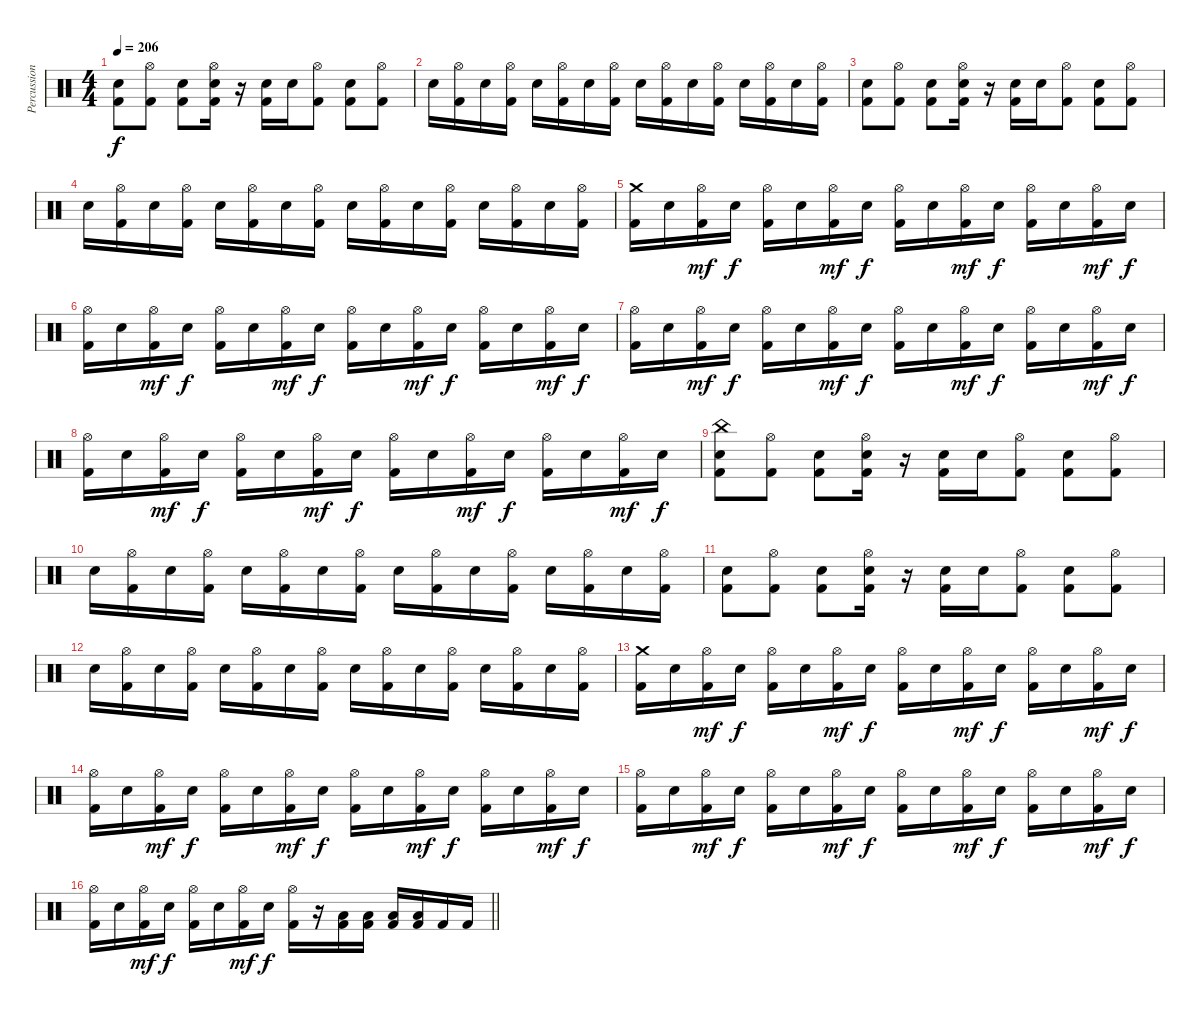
\track ("Percussion" "Percussion") {instrument percussion}
\staff {score}
\articulation defaults
\ts (4 4)
\tempo 206
\clef neutral
\ks c
("Electric Snare (hit)" "Kick (hit) 2").8{dy f} ("Hi-Hat (open)" "Kick (hit) 2").8 ("Electric Snare (hit)" "Kick (hit) 2").8 ("Hi-Hat (open)" "Electric Snare (hit)" "Kick (hit) 2").16 r.16 ("Electric Snare (hit)" "Kick (hit) 2").16 "Electric Snare (hit)".16 ("Hi-Hat (open)" "Kick (hit) 2").8 ("Electric Snare (hit)" "Kick (hit) 2").8 ("Hi-Hat (open)" "Kick (hit) 2").8 |
"Electric Snare (hit)".16 ("Hi-Hat (open)" "Kick (hit) 2").16 "Electric Snare (hit)".16 ("Hi-Hat (open)" "Kick (hit) 2").16 "Electric Snare (hit)".16 ("Hi-Hat (open)" "Kick (hit) 2").16 "Electric Snare (hit)".16 ("Hi-Hat (open)" "Kick (hit) 2").16 "Electric Snare (hit)".16 ("Hi-Hat (open)" "Kick (hit) 2").16 "Electric Snare (hit)".16 ("Hi-Hat (open)" "Kick (hit) 2").16 "Electric Snare (hit)".16 ("Hi-Hat (open)" "Kick (hit) 2").16 "Electric Snare (hit)".16 ("Hi-Hat (open)" "Kick (hit) 2").16 |
("Electric Snare (hit)" "Kick (hit) 2").8 ("Hi-Hat (open)" "Kick (hit) 2").8 ("Electric Snare (hit)" "Kick (hit) 2").8 ("Hi-Hat (open)" "Electric Snare (hit)" "Kick (hit) 2").16 r.16 ("Electric Snare (hit)" "Kick (hit) 2").16 "Electric Snare (hit)".16 ("Hi-Hat (open)" "Kick (hit) 2").8 ("Electric Snare (hit)" "Kick (hit) 2").8 ("Hi-Hat (open)" "Kick (hit) 2").8 |
"Electric Snare (hit)".16 ("Hi-Hat (open)" "Kick (hit) 2").16 "Electric Snare (hit)".16 ("Hi-Hat (open)" "Kick (hit) 2").16 "Electric Snare (hit)".16 ("Hi-Hat (open)" "Kick (hit) 2").16 "Electric Snare (hit)".16 ("Hi-Hat (open)" "Kick (hit) 2").16 "Electric Snare (hit)".16 ("Hi-Hat (open)" "Kick (hit) 2").16 "Electric Snare (hit)".16 ("Hi-Hat (open)" "Kick (hit) 2").16 "Electric Snare (hit)".16 ("Hi-Hat (open)" "Kick (hit) 2").16 "Electric Snare (hit)".16 ("Hi-Hat (open)" "Kick (hit) 2").16 |
("Crash medium (hit)" "Kick (hit) 2").16 "Electric Snare (hit)".16 ("Hi-Hat (open)" "Kick (hit) 2").16{dy mf} "Electric Snare (hit)".16{dy f} ("Hi-Hat (open)" "Kick (hit) 2").16 "Electric Snare (hit)".16 ("Hi-Hat (open)" "Kick (hit) 2").16{dy mf} "Electric Snare (hit)".16{dy f} ("Hi-Hat (open)" "Kick (hit) 2").16 "Electric Snare (hit)".16 ("Hi-Hat (open)" "Kick (hit) 2").16{dy mf} "Electric Snare (hit)".16{dy f} ("Hi-Hat (open)" "Kick (hit) 2").16 "Electric Snare (hit)".16 ("Hi-Hat (open)" "Kick (hit) 2").16{dy mf} "Electric Snare (hit)".16{dy f} |
("Hi-Hat (open)" "Kick (hit) 2").16 "Electric Snare (hit)".16 ("Hi-Hat (open)" "Kick (hit) 2").16{dy mf} "Electric Snare (hit)".16{dy f} ("Hi-Hat (open)" "Kick (hit) 2").16 "Electric Snare (hit)".16 ("Hi-Hat (open)" "Kick (hit) 2").16{dy mf} "Electric Snare (hit)".16{dy f} ("Hi-Hat (open)" "Kick (hit) 2").16 "Electric Snare (hit)".16 ("Hi-Hat (open)" "Kick (hit) 2").16{dy mf} "Electric Snare (hit)".16{dy f} ("Hi-Hat (open)" "Kick (hit) 2").16 "Electric Snare (hit)".16 ("Hi-Hat (open)" "Kick (hit) 2").16{dy mf} "Electric Snare (hit)".16{dy f} |
("Hi-Hat (open)" "Kick (hit) 2").16 "Electric Snare (hit)".16 ("Hi-Hat (open)" "Kick (hit) 2").16{dy mf} "Electric Snare (hit)".16{dy f} ("Hi-Hat (open)" "Kick (hit) 2").16 "Electric Snare (hit)".16 ("Hi-Hat (open)" "Kick (hit) 2").16{dy mf} "Electric Snare (hit)".16{dy f} ("Hi-Hat (open)" "Kick (hit) 2").16 "Electric Snare (hit)".16 ("Hi-Hat (open)" "Kick (hit) 2").16{dy mf} "Electric Snare (hit)".16{dy f} ("Hi-Hat (open)" "Kick (hit) 2").16 "Electric Snare (hit)".16 ("Hi-Hat (open)" "Kick (hit) 2").16{dy mf} "Electric Snare (hit)".16{dy f} |
("Hi-Hat (open)" "Kick (hit) 2").16 "Electric Snare (hit)".16 ("Hi-Hat (open)" "Kick (hit) 2").16{dy mf} "Electric Snare (hit)".16{dy f} ("Hi-Hat (open)" "Kick (hit) 2").16 "Electric Snare (hit)".16 ("Hi-Hat (open)" "Kick (hit) 2").16{dy mf} "Electric Snare (hit)".16{dy f} ("Hi-Hat (open)" "Kick (hit) 2").16 "Electric Snare (hit)".16 ("Hi-Hat (open)" "Kick (hit) 2").16{dy mf} "Electric Snare (hit)".16{dy f} ("Hi-Hat (open)" "Kick (hit) 2").16 "Electric Snare (hit)".16 ("Hi-Hat (open)" "Kick (hit) 2").16{dy mf} "Electric Snare (hit)".16{dy f} |
("China (hit)" "Electric Snare (hit)" "Kick (hit) 2").8 ("Hi-Hat (open)" "Kick (hit) 2").8 ("Electric Snare (hit)" "Kick (hit) 2").8 ("Hi-Hat (open)" "Electric Snare (hit)" "Kick (hit) 2").16 r.16 ("Electric Snare (hit)" "Kick (hit) 2").16 "Electric Snare (hit)".16 ("Hi-Hat (open)" "Kick (hit) 2").8 ("Electric Snare (hit)" "Kick (hit) 2").8 ("Hi-Hat (open)" "Kick (hit) 2").8 |
"Electric Snare (hit)".16 ("Hi-Hat (open)" "Kick (hit) 2").16 "Electric Snare (hit)".16 ("Hi-Hat (open)" "Kick (hit) 2").16 "Electric Snare (hit)".16 ("Hi-Hat (open)" "Kick (hit) 2").16 "Electric Snare (hit)".16 ("Hi-Hat (open)" "Kick (hit) 2").16 "Electric Snare (hit)".16 ("Hi-Hat (open)" "Kick (hit) 2").16 "Electric Snare (hit)".16 ("Hi-Hat (open)" "Kick (hit) 2").16 "Electric Snare (hit)".16 ("Hi-Hat (open)" "Kick (hit) 2").16 "Electric Snare (hit)".16 ("Hi-Hat (open)" "Kick (hit) 2").16 |
("Electric Snare (hit)" "Kick (hit) 2").8 ("Hi-Hat (open)" "Kick (hit) 2").8 ("Electric Snare (hit)" "Kick (hit) 2").8 ("Hi-Hat (open)" "Electric Snare (hit)" "Kick (hit) 2").16 r.16 ("Electric Snare (hit)" "Kick (hit) 2").16 "Electric Snare (hit)".16 ("Hi-Hat (open)" "Kick (hit) 2").8 ("Electric Snare (hit)" "Kick (hit) 2").8 ("Hi-Hat (open)" "Kick (hit) 2").8 |
"Electric Snare (hit)".16 ("Hi-Hat (open)" "Kick (hit) 2").16 "Electric Snare (hit)".16 ("Hi-Hat (open)" "Kick (hit) 2").16 "Electric Snare (hit)".16 ("Hi-Hat (open)" "Kick (hit) 2").16 "Electric Snare (hit)".16 ("Hi-Hat (open)" "Kick (hit) 2").16 "Electric Snare (hit)".16 ("Hi-Hat (open)" "Kick (hit) 2").16 "Electric Snare (hit)".16 ("Hi-Hat (open)" "Kick (hit) 2").16 "Electric Snare (hit)".16 ("Hi-Hat (open)" "Kick (hit) 2").16 "Electric Snare (hit)".16 ("Hi-Hat (open)" "Kick (hit) 2").16 |
("Crash medium (hit)" "Kick (hit) 2").16 "Electric Snare (hit)".16 ("Hi-Hat (open)" "Kick (hit) 2").16{dy mf} "Electric Snare (hit)".16{dy f} ("Hi-Hat (open)" "Kick (hit) 2").16 "Electric Snare (hit)".16 ("Hi-Hat (open)" "Kick (hit) 2").16{dy mf} "Electric Snare (hit)".16{dy f} ("Hi-Hat (open)" "Kick (hit) 2").16 "Electric Snare (hit)".16 ("Hi-Hat (open)" "Kick (hit) 2").16{dy mf} "Electric Snare (hit)".16{dy f} ("Hi-Hat (open)" "Kick (hit) 2").16 "Electric Snare (hit)".16 ("Hi-Hat (open)" "Kick (hit) 2").16{dy mf} "Electric Snare (hit)".16{dy f} |
("Hi-Hat (open)" "Kick (hit) 2").16 "Electric Snare (hit)".16 ("Hi-Hat (open)" "Kick (hit) 2").16{dy mf} "Electric Snare (hit)".16{dy f} ("Hi-Hat (open)" "Kick (hit) 2").16 "Electric Snare (hit)".16 ("Hi-Hat (open)" "Kick (hit) 2").16{dy mf} "Electric Snare (hit)".16{dy f} ("Hi-Hat (open)" "Kick (hit) 2").16 "Electric Snare (hit)".16 ("Hi-Hat (open)" "Kick (hit) 2").16{dy mf} "Electric Snare (hit)".16{dy f} ("Hi-Hat (open)" "Kick (hit) 2").16 "Electric Snare (hit)".16 ("Hi-Hat (open)" "Kick (hit) 2").16{dy mf} "Electric Snare (hit)".16{dy f} |
("Hi-Hat (open)" "Kick (hit) 2").16 "Electric Snare (hit)".16 ("Hi-Hat (open)" "Kick (hit) 2").16{dy mf} "Electric Snare (hit)".16{dy f} ("Hi-Hat (open)" "Kick (hit) 2").16 "Electric Snare (hit)".16 ("Hi-Hat (open)" "Kick (hit) 2").16{dy mf} "Electric Snare (hit)".16{dy f} ("Hi-Hat (open)" "Kick (hit) 2").16 "Electric Snare (hit)".16 ("Hi-Hat (open)" "Kick (hit) 2").16{dy mf} "Electric Snare (hit)".16{dy f} ("Hi-Hat (open)" "Kick (hit) 2").16 "Electric Snare (hit)".16 ("Hi-Hat (open)" "Kick (hit) 2").16{dy mf} "Electric Snare (hit)".16{dy f} |
\barLineRight lightlight
("Hi-Hat (open)" "Kick (hit) 2").16 "Electric Snare (hit)".16 ("Hi-Hat (open)" "Kick (hit) 2").16{dy mf} "Electric Snare (hit)".16{dy f} ("Hi-Hat (open)" "Kick (hit) 2").16 "Electric Snare (hit)".16 ("Hi-Hat (open)" "Kick (hit) 2").16{dy mf} "Electric Snare (hit)".16{dy f} ("Hi-Hat (open)" "Kick (hit) 2").16 r.16 ("Low Tom (hit)" "Kick (hit) 2").16 ("Low Tom (hit)" "Kick (hit) 2").16 ("Low Tom (hit)" "Kick (hit) 2").16 ("Low Tom (hit)" "Kick (hit) 2").16 "Kick (hit) 2".16 "Kick (hit) 2".16
